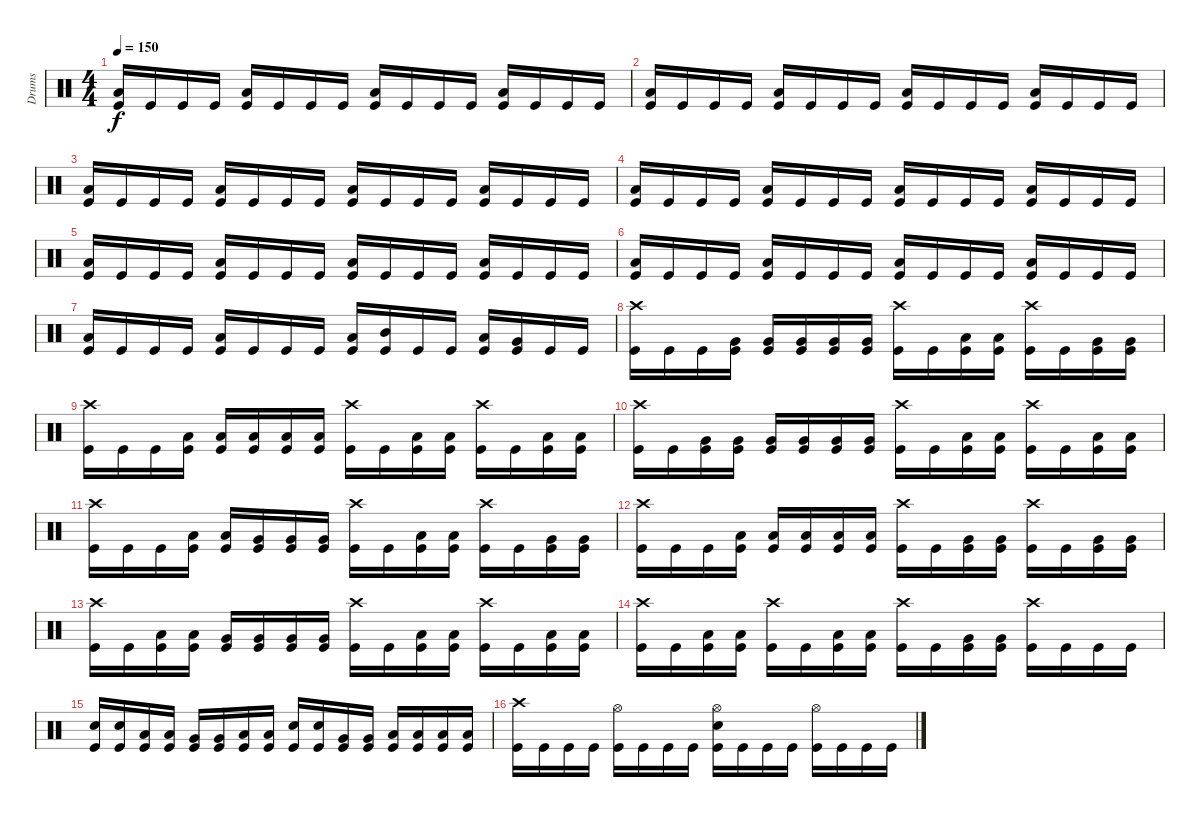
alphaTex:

\track ("Drums" "Drums") {instrument percussion}
\staff {score}
\articulation defaults
\ts (4 4)
\tempo 150
\clef neutral
\ks c
("Kick (hit)" "Low Floor Tom (hit)").16{dy f} "Kick (hit)".16 "Kick (hit)".16 "Kick (hit)".16 ("Kick (hit)" "Low Floor Tom (hit)").16 "Kick (hit)".16 "Kick (hit)".16 "Kick (hit)".16 ("Kick (hit)" "Low Floor Tom (hit)").16 "Kick (hit)".16 "Kick (hit)".16 "Kick (hit)".16 ("Kick (hit)" "Low Floor Tom (hit)").16 "Kick (hit)".16 "Kick (hit)".16 "Kick (hit)".16 |
("Kick (hit)" "Low Floor Tom (hit)").16 "Kick (hit)".16 "Kick (hit)".16 "Kick (hit)".16 ("Kick (hit)" "Low Floor Tom (hit)").16 "Kick (hit)".16 "Kick (hit)".16 "Kick (hit)".16 ("Kick (hit)" "Low Floor Tom (hit)").16 "Kick (hit)".16 "Kick (hit)".16 "Kick (hit)".16 ("Kick (hit)" "Low Floor Tom (hit)").16 "Kick (hit)".16 "Kick (hit)".16 "Kick (hit)".16 |
("Kick (hit)" "Low Floor Tom (hit)").16 "Kick (hit)".16 "Kick (hit)".16 "Kick (hit)".16 ("Kick (hit)" "Low Floor Tom (hit)").16 "Kick (hit)".16 "Kick (hit)".16 "Kick (hit)".16 ("Kick (hit)" "Low Floor Tom (hit)").16 "Kick (hit)".16 "Kick (hit)".16 "Kick (hit)".16 ("Kick (hit)" "Low Floor Tom (hit)").16 "Kick (hit)".16 "Kick (hit)".16 "Kick (hit)".16 |
("Kick (hit)" "Low Floor Tom (hit)").16 "Kick (hit)".16 "Kick (hit)".16 "Kick (hit)".16 ("Kick (hit)" "Low Floor Tom (hit)").16 "Kick (hit)".16 "Kick (hit)".16 "Kick (hit)".16 ("Kick (hit)" "Low Floor Tom (hit)").16 "Kick (hit)".16 "Kick (hit)".16 "Kick (hit)".16 ("Kick (hit)" "Low Floor Tom (hit)").16 "Kick (hit)".16 "Kick (hit)".16 "Kick (hit)".16 |
("Kick (hit)" "Low Floor Tom (hit)").16 "Kick (hit)".16 "Kick (hit)".16 "Kick (hit)".16 ("Kick (hit)" "Low Floor Tom (hit)").16 "Kick (hit)".16 "Kick (hit)".16 "Kick (hit)".16 ("Kick (hit)" "Low Floor Tom (hit)").16 "Kick (hit)".16 "Kick (hit)".16 "Kick (hit)".16 ("Kick (hit)" "Low Floor Tom (hit)").16 "Kick (hit)".16 "Kick (hit)".16 "Kick (hit)".16 |
("Kick (hit)" "Low Floor Tom (hit)").16 "Kick (hit)".16 "Kick (hit)".16 "Kick (hit)".16 ("Kick (hit)" "Low Floor Tom (hit)").16 "Kick (hit)".16 "Kick (hit)".16 "Kick (hit)".16 ("Kick (hit)" "Low Floor Tom (hit)").16 "Kick (hit)".16 "Kick (hit)".16 "Kick (hit)".16 ("Kick (hit)" "Low Floor Tom (hit)").16 "Kick (hit)".16 "Kick (hit)".16 "Kick (hit)".16 |
("Kick (hit)" "Low Floor Tom (hit)").16 "Kick (hit)".16 "Kick (hit)".16 "Kick (hit)".16 ("Kick (hit)" "Low Floor Tom (hit)").16 "Kick (hit)".16 "Kick (hit)".16 "Kick (hit)".16 ("Low Tom (hit)" "Kick (hit)").16 ("Mid Tom (hit)" "Kick (hit)").16 "Kick (hit)".16 "Kick (hit)".16 ("Low Tom (hit)" "Kick (hit)").16 ("Kick (hit)" "Very Low Tom (hit)").16 "Kick (hit)".16 "Kick (hit)".16 |
("Crash high (hit)" "Kick (hit)").16 "Kick (hit)".16 "Kick (hit)".16 ("Kick (hit)" "Very Low Tom (hit)").16 ("Kick (hit)" "Very Low Tom (hit)").16 ("Kick (hit)" "Very Low Tom (hit)").16 ("Kick (hit)" "Very Low Tom (hit)").16 ("Kick (hit)" "Very Low Tom (hit)").16 ("Crash high (hit)" "Kick (hit)").16 "Kick (hit)".16 ("Low Tom (hit)" "Kick (hit)").16 ("Low Tom (hit)" "Kick (hit)").16 ("Crash high (hit)" "Kick (hit)").16 "Kick (hit)".16 ("Kick (hit)" "Very Low Tom (hit)").16 ("Kick (hit)" "Very Low Tom (hit)").16 |
("Crash high (hit)" "Kick (hit)").16 "Kick (hit)".16 "Kick (hit)".16 ("Low Tom (hit)" "Kick (hit)").16 ("Low Tom (hit)" "Kick (hit)").16 ("Low Tom (hit)" "Kick (hit)").16 ("Low Tom (hit)" "Kick (hit)").16 ("Low Tom (hit)" "Kick (hit)").16 ("Crash high (hit)" "Kick (hit)").16 "Kick (hit)".16 ("Kick (hit)" "Low Floor Tom (hit)").16 ("Kick (hit)" "Low Floor Tom (hit)").16 ("Crash high (hit)" "Kick (hit)").16 "Kick (hit)".16 ("Kick (hit)" "Low Floor Tom (hit)").16 ("Kick (hit)" "Low Floor Tom (hit)").16 |
("Crash high (hit)" "Kick (hit)").16 "Kick (hit)".16 ("Kick (hit)" "Very Low Tom (hit)").16 ("Kick (hit)" "Very Low Tom (hit)").16 ("Kick (hit)" "Very Low Tom (hit)").16 ("Kick (hit)" "Very Low Tom (hit)").16 ("Kick (hit)" "Very Low Tom (hit)").16 ("Kick (hit)" "Very Low Tom (hit)").16 ("Crash high (hit)" "Kick (hit)").16 "Kick (hit)".16 ("Kick (hit)" "Low Floor Tom (hit)").16 ("Kick (hit)" "Low Floor Tom (hit)").16 ("Crash high (hit)" "Kick (hit)").16 "Kick (hit)".16 ("Kick (hit)" "Low Floor Tom (hit)").16 ("Kick (hit)" "Low Floor Tom (hit)").16 |
("Crash high (hit)" "Kick (hit)").16 "Kick (hit)".16 "Kick (hit)".16 ("Low Tom (hit)" "Kick (hit)").16 ("Low Tom (hit)" "Kick (hit)").16 ("Kick (hit)" "Very Low Tom (hit)").16 ("Kick (hit)" "Very Low Tom (hit)").16 ("Kick (hit)" "Very Low Tom (hit)").16 ("Crash high (hit)" "Kick (hit)").16 "Kick (hit)".16 ("Low Tom (hit)" "Kick (hit)").16 ("Low Tom (hit)" "Kick (hit)").16 ("Crash high (hit)" "Kick (hit)").16 "Kick (hit)".16 ("Kick (hit)" "Very Low Tom (hit)").16 ("Kick (hit)" "Very Low Tom (hit)").16 |
("Crash high (hit)" "Kick (hit)").16 "Kick (hit)".16 "Kick (hit)".16 ("Low Tom (hit)" "Kick (hit)").16 ("Low Tom (hit)" "Kick (hit)").16 ("Low Tom (hit)" "Kick (hit)").16 ("Low Tom (hit)" "Kick (hit)").16 ("Low Tom (hit)" "Kick (hit)").16 ("Crash high (hit)" "Kick (hit)").16 "Kick (hit)".16 ("Kick (hit)" "Very Low Tom (hit)").16 ("Kick (hit)" "Very Low Tom (hit)").16 ("Crash high (hit)" "Kick (hit)").16 "Kick (hit)".16 ("Kick (hit)" "Very Low Tom (hit)").16 ("Kick (hit)" "Very Low Tom (hit)").16 |
("Crash high (hit)" "Kick (hit)").16 "Kick (hit)".16 ("Low Tom (hit)" "Kick (hit)").16 ("Low Tom (hit)" "Kick (hit)").16 ("Kick (hit)" "Very Low Tom (hit)").16 ("Kick (hit)" "Very Low Tom (hit)").16 ("Kick (hit)" "Very Low Tom (hit)").16 ("Kick (hit)" "Very Low Tom (hit)").16 ("Crash high (hit)" "Kick (hit)").16 "Kick (hit)".16 ("Kick (hit)" "Low Floor Tom (hit)").16 ("Kick (hit)" "Low Floor Tom (hit)").16 ("Crash high (hit)" "Kick (hit)").16 "Kick (hit)".16 ("Kick (hit)" "Low Floor Tom (hit)").16 ("Kick (hit)" "Low Floor Tom (hit)").16 |
("Crash high (hit)" "Kick (hit)").16 "Kick (hit)".16 ("Low Tom (hit)" "Kick (hit)").16 ("Low Tom (hit)" "Kick (hit)").16 ("Crash high (hit)" "Kick (hit)").16 "Kick (hit)".16 ("Low Tom (hit)" "Kick (hit)").16 ("Low Tom (hit)" "Kick (hit)").16 ("Crash high (hit)" "Kick (hit)").16 "Kick (hit)".16 ("Kick (hit)" "Very Low Tom (hit)").16 ("Kick (hit)" "Very Low Tom (hit)").16 ("Crash high (hit)" "Kick (hit)").16 "Kick (hit)".16 "Kick (hit)".16 "Kick (hit)".16 |
("Electric Snare (hit)" "Kick (hit)").16 ("Electric Snare (hit)" "Kick (hit)").16 ("Low Tom (hit)" "Kick (hit)").16 ("Low Tom (hit)" "Kick (hit)").16 ("Kick (hit)" "Very Low Tom (hit)").16 ("Kick (hit)" "Very Low Tom (hit)").16 ("Kick (hit)" "Low Floor Tom (hit)").16 ("Kick (hit)" "Low Floor Tom (hit)").16 ("Electric Snare (hit)" "Kick (hit)").16 ("Electric Snare (hit)" "Kick (hit)").16 ("Kick (hit)" "Very Low Tom (hit)").16 ("Kick (hit)" "Very Low Tom (hit)").16 ("Kick (hit)" "Low Floor Tom (hit)").16 ("Kick (hit)" "Low Floor Tom (hit)").16 ("Kick (hit)" "Low Floor Tom (hit)").16 ("Kick (hit)" "Low Floor Tom (hit)").16 |
("Crash high (hit)" "Kick (hit)").16 "Kick (hit)".16 "Kick (hit)".16 "Kick (hit)".16 ("Hi-Hat (open)" "Kick (hit)").16 "Kick (hit)".16 "Kick (hit)".16 "Kick (hit)".16 ("Hi-Hat (open)" "Electric Snare (hit)" "Kick (hit)").16 "Kick (hit)".16 "Kick (hit)".16 "Kick (hit)".16 ("Hi-Hat (open)" "Kick (hit)").16 "Kick (hit)".16 "Kick (hit)".16 "Kick (hit)".16
